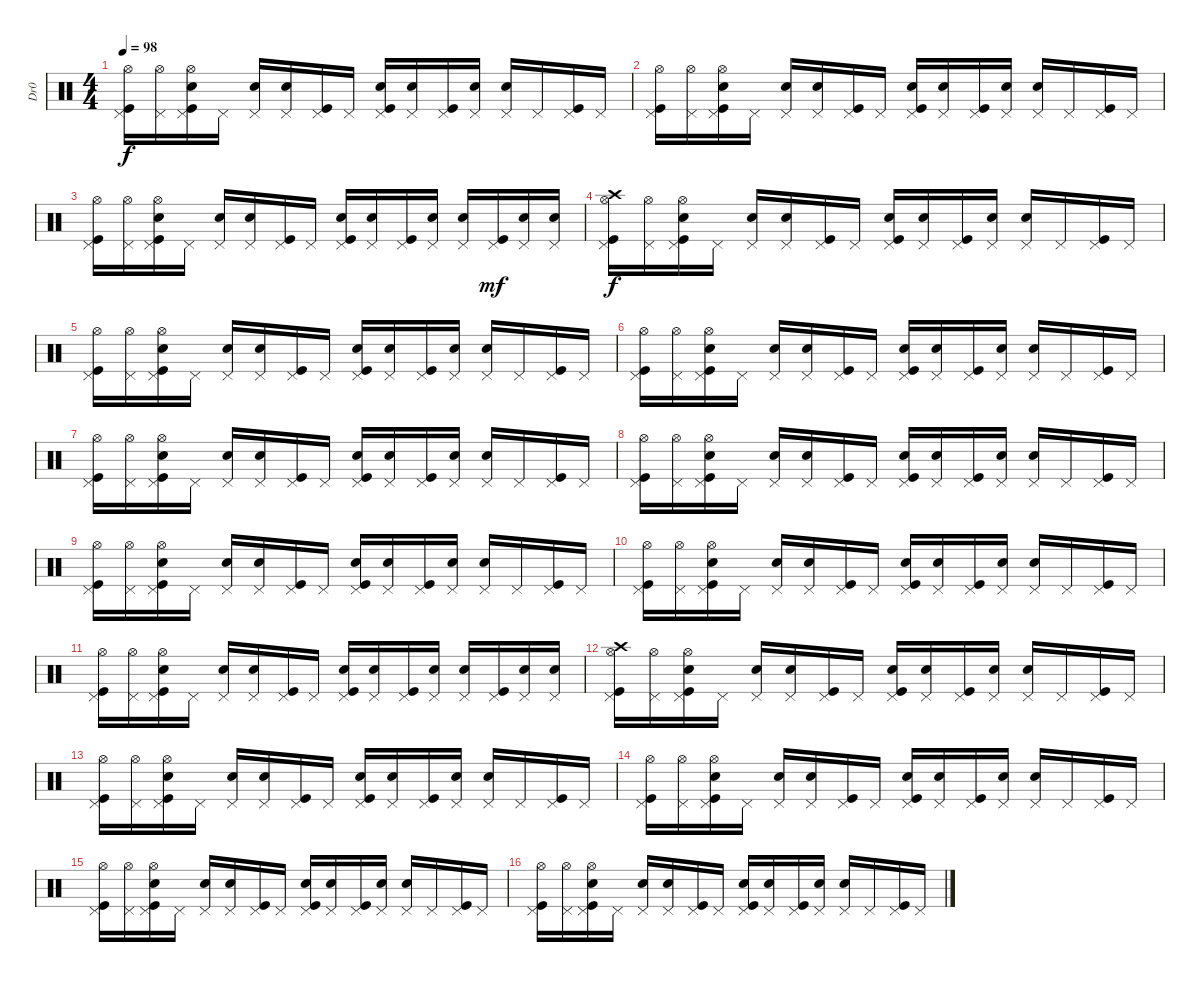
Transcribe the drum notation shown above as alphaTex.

\track ("Dr0" "Dr0") {instrument percussion}
\staff {score}
\articulation defaults
\ts (4 4)
\tempo 98
\clef neutral
\ks c
("Kick (hit)" "Pedal Hi-Hat (hit)" "Hi-Hat (open)").16{dy f} ("Pedal Hi-Hat (hit)" "Hi-Hat (open)").16 ("Kick (hit)" "Pedal Hi-Hat (hit)" "Hand Clap (hit)" "Hi-Hat (open)").16 "Pedal Hi-Hat (hit)".16 ("Pedal Hi-Hat (hit)" "Snare (hit) 2").16 ("Pedal Hi-Hat (hit)" "Hand Clap (hit)").16 ("Kick (hit)" "Pedal Hi-Hat (hit)").16 "Pedal Hi-Hat (hit)".16 ("Kick (hit)" "Pedal Hi-Hat (hit)" "Hand Clap (hit)").16 ("Pedal Hi-Hat (hit)" "Snare (hit) 2").16 ("Kick (hit)" "Pedal Hi-Hat (hit)").16 ("Pedal Hi-Hat (hit)" "Hand Clap (hit)").16 ("Pedal Hi-Hat (hit)" "Snare (hit) 2").16 "Pedal Hi-Hat (hit)".16 ("Kick (hit)" "Pedal Hi-Hat (hit)").16 "Pedal Hi-Hat (hit)".16 |
("Kick (hit)" "Pedal Hi-Hat (hit)" "Hi-Hat (open)").16 ("Pedal Hi-Hat (hit)" "Hi-Hat (open)").16 ("Kick (hit)" "Pedal Hi-Hat (hit)" "Hand Clap (hit)" "Hi-Hat (open)").16 "Pedal Hi-Hat (hit)".16 ("Pedal Hi-Hat (hit)" "Snare (hit) 2").16 ("Pedal Hi-Hat (hit)" "Hand Clap (hit)").16 ("Kick (hit)" "Pedal Hi-Hat (hit)").16 "Pedal Hi-Hat (hit)".16 ("Kick (hit)" "Pedal Hi-Hat (hit)" "Hand Clap (hit)").16 ("Pedal Hi-Hat (hit)" "Snare (hit) 2").16 ("Kick (hit)" "Pedal Hi-Hat (hit)").16 ("Pedal Hi-Hat (hit)" "Hand Clap (hit)").16 ("Pedal Hi-Hat (hit)" "Snare (hit) 2").16 "Pedal Hi-Hat (hit)".16 ("Kick (hit)" "Pedal Hi-Hat (hit)").16 "Pedal Hi-Hat (hit)".16 |
("Kick (hit)" "Pedal Hi-Hat (hit)" "Hi-Hat (open)").16 ("Pedal Hi-Hat (hit)" "Hi-Hat (open)").16 ("Kick (hit)" "Pedal Hi-Hat (hit)" "Hand Clap (hit)" "Hi-Hat (open)").16 "Pedal Hi-Hat (hit)".16 ("Pedal Hi-Hat (hit)" "Snare (hit) 2").16 ("Pedal Hi-Hat (hit)" "Hand Clap (hit)").16 ("Kick (hit)" "Pedal Hi-Hat (hit)").16 "Pedal Hi-Hat (hit)".16 ("Kick (hit)" "Pedal Hi-Hat (hit)" "Hand Clap (hit)").16 ("Pedal Hi-Hat (hit)" "Snare (hit) 2").16 ("Kick (hit)" "Pedal Hi-Hat (hit)").16 ("Pedal Hi-Hat (hit)" "Hand Clap (hit)").16 ("Pedal Hi-Hat (hit)" "Snare (hit) 2").16 ("Kick (hit)" "Pedal Hi-Hat (hit)").16{dy mf} ("Pedal Hi-Hat (hit)" "Snare (hit) 2").16 ("Pedal Hi-Hat (hit)" "Snare (hit) 2").16 |
("Kick (hit)" "Pedal Hi-Hat (hit)" "Crash high (hit)" "Hi-Hat (open)").16{dy f} ("Pedal Hi-Hat (hit)" "Hi-Hat (open)").16 ("Kick (hit)" "Pedal Hi-Hat (hit)" "Hand Clap (hit)" "Hi-Hat (open)").16 "Pedal Hi-Hat (hit)".16 ("Pedal Hi-Hat (hit)" "Snare (hit) 2").16 ("Pedal Hi-Hat (hit)" "Hand Clap (hit)").16 ("Kick (hit)" "Pedal Hi-Hat (hit)").16 "Pedal Hi-Hat (hit)".16 ("Kick (hit)" "Pedal Hi-Hat (hit)" "Hand Clap (hit)").16 ("Pedal Hi-Hat (hit)" "Snare (hit) 2").16 ("Kick (hit)" "Pedal Hi-Hat (hit)").16 ("Pedal Hi-Hat (hit)" "Hand Clap (hit)").16 ("Pedal Hi-Hat (hit)" "Snare (hit) 2").16 "Pedal Hi-Hat (hit)".16 ("Kick (hit)" "Pedal Hi-Hat (hit)").16 "Pedal Hi-Hat (hit)".16 |
("Kick (hit)" "Pedal Hi-Hat (hit)" "Hi-Hat (open)").16 ("Pedal Hi-Hat (hit)" "Hi-Hat (open)").16 ("Kick (hit)" "Pedal Hi-Hat (hit)" "Hand Clap (hit)" "Hi-Hat (open)").16 "Pedal Hi-Hat (hit)".16 ("Pedal Hi-Hat (hit)" "Snare (hit) 2").16 ("Pedal Hi-Hat (hit)" "Hand Clap (hit)").16 ("Kick (hit)" "Pedal Hi-Hat (hit)").16 "Pedal Hi-Hat (hit)".16 ("Kick (hit)" "Pedal Hi-Hat (hit)" "Hand Clap (hit)").16 ("Pedal Hi-Hat (hit)" "Snare (hit) 2").16 ("Kick (hit)" "Pedal Hi-Hat (hit)").16 ("Pedal Hi-Hat (hit)" "Hand Clap (hit)").16 ("Pedal Hi-Hat (hit)" "Snare (hit) 2").16 "Pedal Hi-Hat (hit)".16 ("Kick (hit)" "Pedal Hi-Hat (hit)").16 "Pedal Hi-Hat (hit)".16 |
("Kick (hit)" "Pedal Hi-Hat (hit)" "Hi-Hat (open)").16 ("Pedal Hi-Hat (hit)" "Hi-Hat (open)").16 ("Kick (hit)" "Pedal Hi-Hat (hit)" "Hand Clap (hit)" "Hi-Hat (open)").16 "Pedal Hi-Hat (hit)".16 ("Pedal Hi-Hat (hit)" "Snare (hit) 2").16 ("Pedal Hi-Hat (hit)" "Hand Clap (hit)").16 ("Kick (hit)" "Pedal Hi-Hat (hit)").16 "Pedal Hi-Hat (hit)".16 ("Kick (hit)" "Pedal Hi-Hat (hit)" "Hand Clap (hit)").16 ("Pedal Hi-Hat (hit)" "Snare (hit) 2").16 ("Kick (hit)" "Pedal Hi-Hat (hit)").16 ("Pedal Hi-Hat (hit)" "Hand Clap (hit)").16 ("Pedal Hi-Hat (hit)" "Snare (hit) 2").16 "Pedal Hi-Hat (hit)".16 ("Kick (hit)" "Pedal Hi-Hat (hit)").16 "Pedal Hi-Hat (hit)".16 |
("Kick (hit)" "Pedal Hi-Hat (hit)" "Hi-Hat (open)").16 ("Pedal Hi-Hat (hit)" "Hi-Hat (open)").16 ("Kick (hit)" "Pedal Hi-Hat (hit)" "Hand Clap (hit)" "Hi-Hat (open)").16 "Pedal Hi-Hat (hit)".16 ("Pedal Hi-Hat (hit)" "Snare (hit) 2").16 ("Pedal Hi-Hat (hit)" "Hand Clap (hit)").16 ("Kick (hit)" "Pedal Hi-Hat (hit)").16 "Pedal Hi-Hat (hit)".16 ("Kick (hit)" "Pedal Hi-Hat (hit)" "Hand Clap (hit)").16 ("Pedal Hi-Hat (hit)" "Snare (hit) 2").16 ("Kick (hit)" "Pedal Hi-Hat (hit)").16 ("Pedal Hi-Hat (hit)" "Hand Clap (hit)").16 ("Pedal Hi-Hat (hit)" "Snare (hit) 2").16 "Pedal Hi-Hat (hit)".16 ("Kick (hit)" "Pedal Hi-Hat (hit)").16 "Pedal Hi-Hat (hit)".16 |
("Kick (hit)" "Pedal Hi-Hat (hit)" "Hi-Hat (open)").16 ("Pedal Hi-Hat (hit)" "Hi-Hat (open)").16 ("Kick (hit)" "Pedal Hi-Hat (hit)" "Hand Clap (hit)" "Hi-Hat (open)").16 "Pedal Hi-Hat (hit)".16 ("Pedal Hi-Hat (hit)" "Snare (hit) 2").16 ("Pedal Hi-Hat (hit)" "Hand Clap (hit)").16 ("Kick (hit)" "Pedal Hi-Hat (hit)").16 "Pedal Hi-Hat (hit)".16 ("Kick (hit)" "Pedal Hi-Hat (hit)" "Hand Clap (hit)").16 ("Pedal Hi-Hat (hit)" "Snare (hit) 2").16 ("Kick (hit)" "Pedal Hi-Hat (hit)").16 ("Pedal Hi-Hat (hit)" "Hand Clap (hit)").16 ("Pedal Hi-Hat (hit)" "Snare (hit) 2").16 "Pedal Hi-Hat (hit)".16 ("Kick (hit)" "Pedal Hi-Hat (hit)").16 "Pedal Hi-Hat (hit)".16 |
("Kick (hit)" "Pedal Hi-Hat (hit)" "Hi-Hat (open)").16 ("Pedal Hi-Hat (hit)" "Hi-Hat (open)").16 ("Kick (hit)" "Pedal Hi-Hat (hit)" "Hand Clap (hit)" "Hi-Hat (open)").16 "Pedal Hi-Hat (hit)".16 ("Pedal Hi-Hat (hit)" "Snare (hit) 2").16 ("Pedal Hi-Hat (hit)" "Hand Clap (hit)").16 ("Kick (hit)" "Pedal Hi-Hat (hit)").16 "Pedal Hi-Hat (hit)".16 ("Kick (hit)" "Pedal Hi-Hat (hit)" "Hand Clap (hit)").16 ("Pedal Hi-Hat (hit)" "Snare (hit) 2").16 ("Kick (hit)" "Pedal Hi-Hat (hit)").16 ("Pedal Hi-Hat (hit)" "Hand Clap (hit)").16 ("Pedal Hi-Hat (hit)" "Snare (hit) 2").16 "Pedal Hi-Hat (hit)".16 ("Kick (hit)" "Pedal Hi-Hat (hit)").16 "Pedal Hi-Hat (hit)".16 |
("Kick (hit)" "Pedal Hi-Hat (hit)" "Hi-Hat (open)").16 ("Pedal Hi-Hat (hit)" "Hi-Hat (open)").16 ("Kick (hit)" "Pedal Hi-Hat (hit)" "Hand Clap (hit)" "Hi-Hat (open)").16 "Pedal Hi-Hat (hit)".16 ("Pedal Hi-Hat (hit)" "Snare (hit) 2").16 ("Pedal Hi-Hat (hit)" "Hand Clap (hit)").16 ("Kick (hit)" "Pedal Hi-Hat (hit)").16 "Pedal Hi-Hat (hit)".16 ("Kick (hit)" "Pedal Hi-Hat (hit)" "Hand Clap (hit)").16 ("Pedal Hi-Hat (hit)" "Snare (hit) 2").16 ("Kick (hit)" "Pedal Hi-Hat (hit)").16 ("Pedal Hi-Hat (hit)" "Hand Clap (hit)").16 ("Pedal Hi-Hat (hit)" "Snare (hit) 2").16 "Pedal Hi-Hat (hit)".16 ("Kick (hit)" "Pedal Hi-Hat (hit)").16 "Pedal Hi-Hat (hit)".16 |
("Kick (hit)" "Pedal Hi-Hat (hit)" "Hi-Hat (open)").16 ("Pedal Hi-Hat (hit)" "Hi-Hat (open)").16 ("Kick (hit)" "Pedal Hi-Hat (hit)" "Hand Clap (hit)" "Hi-Hat (open)").16 "Pedal Hi-Hat (hit)".16 ("Pedal Hi-Hat (hit)" "Snare (hit) 2").16 ("Pedal Hi-Hat (hit)" "Hand Clap (hit)").16 ("Kick (hit)" "Pedal Hi-Hat (hit)").16 "Pedal Hi-Hat (hit)".16 ("Kick (hit)" "Pedal Hi-Hat (hit)" "Hand Clap (hit)").16 ("Pedal Hi-Hat (hit)" "Snare (hit) 2").16 ("Kick (hit)" "Pedal Hi-Hat (hit)").16 ("Pedal Hi-Hat (hit)" "Hand Clap (hit)").16 ("Pedal Hi-Hat (hit)" "Snare (hit) 2").16 ("Kick (hit)" "Pedal Hi-Hat (hit)").16 ("Pedal Hi-Hat (hit)" "Snare (hit) 2").16 ("Pedal Hi-Hat (hit)" "Snare (hit) 2").16 |
("Kick (hit)" "Pedal Hi-Hat (hit)" "Crash high (hit)" "Hi-Hat (open)").16 ("Pedal Hi-Hat (hit)" "Hi-Hat (open)").16 ("Kick (hit)" "Pedal Hi-Hat (hit)" "Hand Clap (hit)" "Hi-Hat (open)").16 "Pedal Hi-Hat (hit)".16 ("Pedal Hi-Hat (hit)" "Snare (hit) 2").16 ("Pedal Hi-Hat (hit)" "Hand Clap (hit)").16 ("Kick (hit)" "Pedal Hi-Hat (hit)").16 "Pedal Hi-Hat (hit)".16 ("Kick (hit)" "Pedal Hi-Hat (hit)" "Hand Clap (hit)").16 ("Pedal Hi-Hat (hit)" "Snare (hit) 2").16 ("Kick (hit)" "Pedal Hi-Hat (hit)").16 ("Pedal Hi-Hat (hit)" "Hand Clap (hit)").16 ("Pedal Hi-Hat (hit)" "Snare (hit) 2").16 "Pedal Hi-Hat (hit)".16 ("Kick (hit)" "Pedal Hi-Hat (hit)").16 "Pedal Hi-Hat (hit)".16 |
("Kick (hit)" "Pedal Hi-Hat (hit)" "Hi-Hat (open)").16 ("Pedal Hi-Hat (hit)" "Hi-Hat (open)").16 ("Kick (hit)" "Pedal Hi-Hat (hit)" "Hand Clap (hit)" "Hi-Hat (open)").16 "Pedal Hi-Hat (hit)".16 ("Pedal Hi-Hat (hit)" "Snare (hit) 2").16 ("Pedal Hi-Hat (hit)" "Hand Clap (hit)").16 ("Kick (hit)" "Pedal Hi-Hat (hit)").16 "Pedal Hi-Hat (hit)".16 ("Kick (hit)" "Pedal Hi-Hat (hit)" "Hand Clap (hit)").16 ("Pedal Hi-Hat (hit)" "Snare (hit) 2").16 ("Kick (hit)" "Pedal Hi-Hat (hit)").16 ("Pedal Hi-Hat (hit)" "Hand Clap (hit)").16 ("Pedal Hi-Hat (hit)" "Snare (hit) 2").16 "Pedal Hi-Hat (hit)".16 ("Kick (hit)" "Pedal Hi-Hat (hit)").16 "Pedal Hi-Hat (hit)".16 |
("Kick (hit)" "Pedal Hi-Hat (hit)" "Hi-Hat (open)").16 ("Pedal Hi-Hat (hit)" "Hi-Hat (open)").16 ("Kick (hit)" "Pedal Hi-Hat (hit)" "Hand Clap (hit)" "Hi-Hat (open)").16 "Pedal Hi-Hat (hit)".16 ("Pedal Hi-Hat (hit)" "Snare (hit) 2").16 ("Pedal Hi-Hat (hit)" "Hand Clap (hit)").16 ("Kick (hit)" "Pedal Hi-Hat (hit)").16 "Pedal Hi-Hat (hit)".16 ("Kick (hit)" "Pedal Hi-Hat (hit)" "Hand Clap (hit)").16 ("Pedal Hi-Hat (hit)" "Snare (hit) 2").16 ("Kick (hit)" "Pedal Hi-Hat (hit)").16 ("Pedal Hi-Hat (hit)" "Hand Clap (hit)").16 ("Pedal Hi-Hat (hit)" "Snare (hit) 2").16 "Pedal Hi-Hat (hit)".16 ("Kick (hit)" "Pedal Hi-Hat (hit)").16 "Pedal Hi-Hat (hit)".16 |
("Kick (hit)" "Pedal Hi-Hat (hit)" "Hi-Hat (open)").16 ("Pedal Hi-Hat (hit)" "Hi-Hat (open)").16 ("Kick (hit)" "Pedal Hi-Hat (hit)" "Hand Clap (hit)" "Hi-Hat (open)").16 "Pedal Hi-Hat (hit)".16 ("Pedal Hi-Hat (hit)" "Snare (hit) 2").16 ("Pedal Hi-Hat (hit)" "Hand Clap (hit)").16 ("Kick (hit)" "Pedal Hi-Hat (hit)").16 "Pedal Hi-Hat (hit)".16 ("Kick (hit)" "Pedal Hi-Hat (hit)" "Hand Clap (hit)").16 ("Pedal Hi-Hat (hit)" "Snare (hit) 2").16 ("Kick (hit)" "Pedal Hi-Hat (hit)").16 ("Pedal Hi-Hat (hit)" "Hand Clap (hit)").16 ("Pedal Hi-Hat (hit)" "Snare (hit) 2").16 "Pedal Hi-Hat (hit)".16 ("Kick (hit)" "Pedal Hi-Hat (hit)").16 "Pedal Hi-Hat (hit)".16 |
("Kick (hit)" "Pedal Hi-Hat (hit)" "Hi-Hat (open)").16 ("Pedal Hi-Hat (hit)" "Hi-Hat (open)").16 ("Kick (hit)" "Pedal Hi-Hat (hit)" "Hand Clap (hit)" "Hi-Hat (open)").16 "Pedal Hi-Hat (hit)".16 ("Pedal Hi-Hat (hit)" "Snare (hit) 2").16 ("Pedal Hi-Hat (hit)" "Hand Clap (hit)").16 ("Kick (hit)" "Pedal Hi-Hat (hit)").16 "Pedal Hi-Hat (hit)".16 ("Kick (hit)" "Pedal Hi-Hat (hit)" "Hand Clap (hit)").16 ("Pedal Hi-Hat (hit)" "Snare (hit) 2").16 ("Kick (hit)" "Pedal Hi-Hat (hit)").16 ("Pedal Hi-Hat (hit)" "Hand Clap (hit)").16 ("Pedal Hi-Hat (hit)" "Snare (hit) 2").16 "Pedal Hi-Hat (hit)".16 ("Kick (hit)" "Pedal Hi-Hat (hit)").16 "Pedal Hi-Hat (hit)".16
